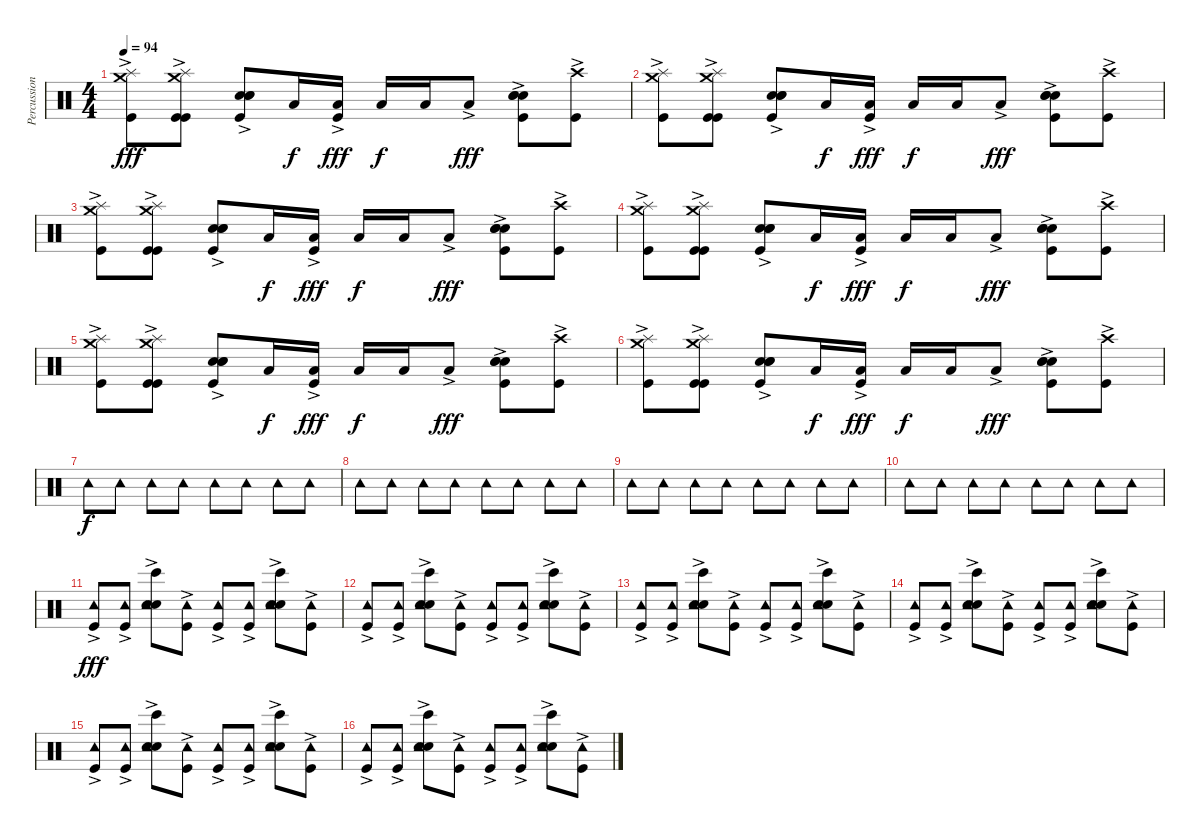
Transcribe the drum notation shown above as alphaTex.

\track ("Percussion" "Percussion") {instrument percussion}
\staff {score}
\articulation defaults
\ts (4 4)
\tempo 94
\clef neutral
\ks c
("Crash medium (hit)"{ac} "Splash (hit)" "Kick (hit)"{ac}).8{dy fff} ("Kick (hit)"{ac} "Crash medium (hit)" "Splash (hit)" "Kick (hit)"{ac}).8 ("Kick (hit)"{ac} "Snare (hit) 2" "Electric Snare (hit)" "Hand Clap (hit)").8 "Low Floor Tom (hit)".16{dy f} ("Kick (hit)"{ac} "Low Floor Tom (hit)").16{dy fff} "Low Floor Tom (hit)".16{dy f} "Low Floor Tom (hit)".16 "Low Floor Tom (hit)"{ac}.8{dy fff} ("Hand Clap (hit)" "Electric Snare (hit)" "Snare (hit) 2" "Kick (hit)"{ac}).8 ("Kick (hit)"{ac} "Crash high (hit)").8 |
("Crash medium (hit)"{ac} "Splash (hit)" "Kick (hit)"{ac}).8 ("Kick (hit)"{ac} "Crash medium (hit)" "Splash (hit)" "Kick (hit)"{ac}).8 ("Kick (hit)"{ac} "Snare (hit) 2" "Electric Snare (hit)" "Hand Clap (hit)").8 "Low Floor Tom (hit)".16{dy f} ("Kick (hit)"{ac} "Low Floor Tom (hit)").16{dy fff} "Low Floor Tom (hit)".16{dy f} "Low Floor Tom (hit)".16 "Low Floor Tom (hit)"{ac}.8{dy fff} ("Hand Clap (hit)" "Electric Snare (hit)" "Snare (hit) 2" "Kick (hit)"{ac}).8 ("Kick (hit)"{ac} "Crash high (hit)").8 |
("Crash medium (hit)"{ac} "Splash (hit)" "Kick (hit)"{ac}).8 ("Kick (hit)"{ac} "Crash medium (hit)" "Splash (hit)" "Kick (hit)"{ac}).8 ("Kick (hit)"{ac} "Snare (hit) 2" "Electric Snare (hit)" "Hand Clap (hit)").8 "Low Floor Tom (hit)".16{dy f} ("Kick (hit)"{ac} "Low Floor Tom (hit)").16{dy fff} "Low Floor Tom (hit)".16{dy f} "Low Floor Tom (hit)".16 "Low Floor Tom (hit)"{ac}.8{dy fff} ("Hand Clap (hit)" "Electric Snare (hit)" "Snare (hit) 2" "Kick (hit)"{ac}).8 ("Kick (hit)"{ac} "Crash high (hit)").8 |
("Crash medium (hit)"{ac} "Splash (hit)" "Kick (hit)"{ac}).8 ("Kick (hit)"{ac} "Crash medium (hit)" "Splash (hit)" "Kick (hit)"{ac}).8 ("Kick (hit)"{ac} "Snare (hit) 2" "Electric Snare (hit)" "Hand Clap (hit)").8 "Low Floor Tom (hit)".16{dy f} ("Kick (hit)"{ac} "Low Floor Tom (hit)").16{dy fff} "Low Floor Tom (hit)".16{dy f} "Low Floor Tom (hit)".16 "Low Floor Tom (hit)"{ac}.8{dy fff} ("Hand Clap (hit)" "Electric Snare (hit)" "Snare (hit) 2" "Kick (hit)"{ac}).8 ("Kick (hit)"{ac} "Crash high (hit)").8 |
("Crash medium (hit)"{ac} "Splash (hit)" "Kick (hit)"{ac}).8 ("Kick (hit)"{ac} "Crash medium (hit)" "Splash (hit)" "Kick (hit)"{ac}).8 ("Kick (hit)"{ac} "Snare (hit) 2" "Electric Snare (hit)" "Hand Clap (hit)").8 "Low Floor Tom (hit)".16{dy f} ("Kick (hit)"{ac} "Low Floor Tom (hit)").16{dy fff} "Low Floor Tom (hit)".16{dy f} "Low Floor Tom (hit)".16 "Low Floor Tom (hit)"{ac}.8{dy fff} ("Hand Clap (hit)" "Electric Snare (hit)" "Snare (hit) 2" "Kick (hit)"{ac}).8 ("Kick (hit)"{ac} "Crash high (hit)").8 |
("Crash medium (hit)"{ac} "Splash (hit)" "Kick (hit)"{ac}).8 ("Kick (hit)"{ac} "Crash medium (hit)" "Splash (hit)" "Kick (hit)"{ac}).8 ("Kick (hit)"{ac} "Snare (hit) 2" "Electric Snare (hit)" "Hand Clap (hit)").8 "Low Floor Tom (hit)".16{dy f} ("Kick (hit)"{ac} "Low Floor Tom (hit)").16{dy fff} "Low Floor Tom (hit)".16{dy f} "Low Floor Tom (hit)".16 "Low Floor Tom (hit)"{ac}.8{dy fff} ("Hand Clap (hit)" "Electric Snare (hit)" "Snare (hit) 2" "Kick (hit)"{ac}).8 ("Kick (hit)"{ac} "Crash high (hit)").8 |
"Tambourine (hit)".8{dy f} "Tambourine (hit)".8 "Tambourine (hit)".8 "Tambourine (hit)".8 "Tambourine (hit)".8 "Tambourine (hit)".8 "Tambourine (hit)".8 "Tambourine (hit)".8 |
"Tambourine (hit)".8 "Tambourine (hit)".8 "Tambourine (hit)".8 "Tambourine (hit)".8 "Tambourine (hit)".8 "Tambourine (hit)".8 "Tambourine (hit)".8 "Tambourine (hit)".8 |
"Tambourine (hit)".8 "Tambourine (hit)".8 "Tambourine (hit)".8 "Tambourine (hit)".8 "Tambourine (hit)".8 "Tambourine (hit)".8 "Tambourine (hit)".8 "Tambourine (hit)".8 |
"Tambourine (hit)".8 "Tambourine (hit)".8 "Tambourine (hit)".8 "Tambourine (hit)".8 "Tambourine (hit)".8 "Tambourine (hit)".8 "Tambourine (hit)".8 "Tambourine (hit)".8 |
("Kick (hit)"{ac} "Tambourine (hit)").8{dy fff} ("Kick (hit)"{ac} "Tambourine (hit)").8 ("Bongo High (hit)"{ac} "Electric Snare (hit)" "Snare (hit) 2" "Tambourine (hit)").8 ("Kick (hit)"{ac} "Tambourine (hit)").8 ("Kick (hit)"{ac} "Tambourine (hit)").8 ("Kick (hit)"{ac} "Tambourine (hit)").8 ("Bongo High (hit)"{ac} "Snare (hit) 2" "Electric Snare (hit)" "Tambourine (hit)").8 ("Kick (hit)"{ac} "Tambourine (hit)").8 |
("Kick (hit)"{ac} "Tambourine (hit)").8 ("Kick (hit)"{ac} "Tambourine (hit)").8 ("Bongo High (hit)"{ac} "Electric Snare (hit)" "Snare (hit) 2" "Tambourine (hit)").8 ("Kick (hit)"{ac} "Tambourine (hit)").8 ("Kick (hit)"{ac} "Tambourine (hit)").8 ("Kick (hit)"{ac} "Tambourine (hit)").8 ("Bongo High (hit)"{ac} "Snare (hit) 2" "Electric Snare (hit)" "Tambourine (hit)").8 ("Kick (hit)"{ac} "Tambourine (hit)").8 |
("Kick (hit)"{ac} "Tambourine (hit)").8 ("Kick (hit)"{ac} "Tambourine (hit)").8 ("Bongo High (hit)"{ac} "Electric Snare (hit)" "Snare (hit) 2" "Tambourine (hit)").8 ("Kick (hit)"{ac} "Tambourine (hit)").8 ("Kick (hit)"{ac} "Tambourine (hit)").8 ("Kick (hit)"{ac} "Tambourine (hit)").8 ("Bongo High (hit)"{ac} "Snare (hit) 2" "Electric Snare (hit)" "Tambourine (hit)").8 ("Kick (hit)"{ac} "Tambourine (hit)").8 |
("Kick (hit)"{ac} "Tambourine (hit)").8 ("Kick (hit)"{ac} "Tambourine (hit)").8 ("Bongo High (hit)"{ac} "Electric Snare (hit)" "Snare (hit) 2" "Tambourine (hit)").8 ("Kick (hit)"{ac} "Tambourine (hit)").8 ("Kick (hit)"{ac} "Tambourine (hit)").8 ("Kick (hit)"{ac} "Tambourine (hit)").8 ("Bongo High (hit)"{ac} "Snare (hit) 2" "Electric Snare (hit)" "Tambourine (hit)").8 ("Kick (hit)"{ac} "Tambourine (hit)").8 |
("Kick (hit)"{ac} "Tambourine (hit)").8 ("Kick (hit)"{ac} "Tambourine (hit)").8 ("Bongo High (hit)"{ac} "Electric Snare (hit)" "Snare (hit) 2" "Tambourine (hit)").8 ("Kick (hit)"{ac} "Tambourine (hit)").8 ("Kick (hit)"{ac} "Tambourine (hit)").8 ("Kick (hit)"{ac} "Tambourine (hit)").8 ("Bongo High (hit)"{ac} "Snare (hit) 2" "Electric Snare (hit)" "Tambourine (hit)").8 ("Kick (hit)"{ac} "Tambourine (hit)").8 |
("Kick (hit)"{ac} "Tambourine (hit)").8 ("Kick (hit)"{ac} "Tambourine (hit)").8 ("Bongo High (hit)"{ac} "Electric Snare (hit)" "Snare (hit) 2" "Tambourine (hit)").8 ("Kick (hit)"{ac} "Tambourine (hit)").8 ("Kick (hit)"{ac} "Tambourine (hit)").8 ("Kick (hit)"{ac} "Tambourine (hit)").8 ("Bongo High (hit)"{ac} "Snare (hit) 2" "Electric Snare (hit)" "Tambourine (hit)").8 ("Kick (hit)"{ac} "Tambourine (hit)").8
